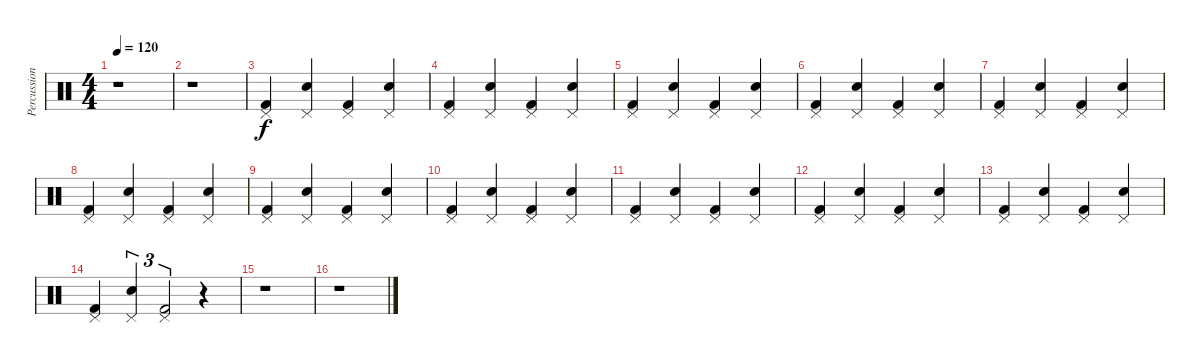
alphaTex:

\track ("Percussion" "Percussion") {instrument percussion}
\staff {score}
\articulation defaults
\ts (4 4)
\tempo 120
\clef neutral
\ks c
r.1{dy f} |
r.1 |
("Pedal Hi-Hat (hit)" "Kick (hit) 2").4 ("Pedal Hi-Hat (hit)" "Snare (hit) 2").4 ("Pedal Hi-Hat (hit)" "Kick (hit) 2").4 ("Pedal Hi-Hat (hit)" "Snare (hit) 2").4 |
("Pedal Hi-Hat (hit)" "Kick (hit) 2").4 ("Pedal Hi-Hat (hit)" "Snare (hit) 2").4 ("Pedal Hi-Hat (hit)" "Kick (hit) 2").4 ("Pedal Hi-Hat (hit)" "Snare (hit) 2").4 |
("Pedal Hi-Hat (hit)" "Kick (hit) 2").4 ("Pedal Hi-Hat (hit)" "Snare (hit) 2").4 ("Pedal Hi-Hat (hit)" "Kick (hit) 2").4 ("Pedal Hi-Hat (hit)" "Snare (hit) 2").4 |
("Pedal Hi-Hat (hit)" "Kick (hit) 2").4 ("Pedal Hi-Hat (hit)" "Snare (hit) 2").4 ("Pedal Hi-Hat (hit)" "Kick (hit) 2").4 ("Pedal Hi-Hat (hit)" "Snare (hit) 2").4 |
("Pedal Hi-Hat (hit)" "Kick (hit) 2").4 ("Pedal Hi-Hat (hit)" "Snare (hit) 2").4 ("Pedal Hi-Hat (hit)" "Kick (hit) 2").4 ("Pedal Hi-Hat (hit)" "Snare (hit) 2").4 |
("Pedal Hi-Hat (hit)" "Kick (hit) 2").4 ("Pedal Hi-Hat (hit)" "Snare (hit) 2").4 ("Pedal Hi-Hat (hit)" "Kick (hit) 2").4 ("Pedal Hi-Hat (hit)" "Snare (hit) 2").4 |
("Pedal Hi-Hat (hit)" "Kick (hit) 2").4 ("Pedal Hi-Hat (hit)" "Snare (hit) 2").4 ("Pedal Hi-Hat (hit)" "Kick (hit) 2").4 ("Pedal Hi-Hat (hit)" "Snare (hit) 2").4 |
("Pedal Hi-Hat (hit)" "Kick (hit) 2").4 ("Pedal Hi-Hat (hit)" "Snare (hit) 2").4 ("Pedal Hi-Hat (hit)" "Kick (hit) 2").4 ("Pedal Hi-Hat (hit)" "Snare (hit) 2").4 |
("Pedal Hi-Hat (hit)" "Kick (hit) 2").4 ("Pedal Hi-Hat (hit)" "Snare (hit) 2").4 ("Pedal Hi-Hat (hit)" "Kick (hit) 2").4 ("Pedal Hi-Hat (hit)" "Snare (hit) 2").4 |
("Pedal Hi-Hat (hit)" "Kick (hit) 2").4 ("Pedal Hi-Hat (hit)" "Snare (hit) 2").4 ("Pedal Hi-Hat (hit)" "Kick (hit) 2").4 ("Pedal Hi-Hat (hit)" "Snare (hit) 2").4 |
("Pedal Hi-Hat (hit)" "Kick (hit) 2").4 ("Pedal Hi-Hat (hit)" "Snare (hit) 2").4 ("Pedal Hi-Hat (hit)" "Kick (hit) 2").4 ("Pedal Hi-Hat (hit)" "Snare (hit) 2").4 |
("Pedal Hi-Hat (hit)" "Kick (hit) 2").4 ("Pedal Hi-Hat (hit)" "Snare (hit) 2").4{tu (3 2)} ("Pedal Hi-Hat (hit)" "Kick (hit) 2").2{tu (3 2)} r.4 |
r.1 |
r.1
